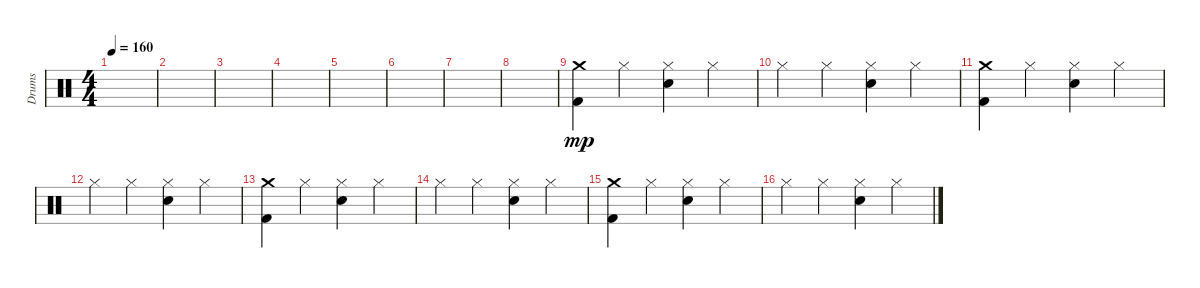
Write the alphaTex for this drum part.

\track ("Drums" "Drums") {instrument percussion}
\staff {score}
\articulation defaults
\ts (4 4)
\tempo 160
\clef neutral
\ks c
|
|
|
|
|
|
|
|
("Kick (hit) 2" "Crash medium (hit)").4{dy mp} "Hi-Hat (closed)".4 ("Snare (hit) 2" "Hi-Hat (closed)").4 "Hi-Hat (closed)".4 |
"Hi-Hat (closed)".4 "Hi-Hat (closed)".4 ("Snare (hit) 2" "Hi-Hat (closed)").4 "Hi-Hat (closed)".4 |
("Kick (hit) 2" "Crash medium (hit)").4 "Hi-Hat (closed)".4 ("Snare (hit) 2" "Hi-Hat (closed)").4 "Hi-Hat (closed)".4 |
"Hi-Hat (closed)".4 "Hi-Hat (closed)".4 ("Snare (hit) 2" "Hi-Hat (closed)").4 "Hi-Hat (closed)".4 |
("Kick (hit) 2" "Crash medium (hit)").4 "Hi-Hat (closed)".4 ("Snare (hit) 2" "Hi-Hat (closed)").4 "Hi-Hat (closed)".4 |
"Hi-Hat (closed)".4 "Hi-Hat (closed)".4 ("Snare (hit) 2" "Hi-Hat (closed)").4 "Hi-Hat (closed)".4 |
("Kick (hit) 2" "Crash medium (hit)").4 "Hi-Hat (closed)".4 ("Snare (hit) 2" "Hi-Hat (closed)").4 "Hi-Hat (closed)".4 |
"Hi-Hat (closed)".4 "Hi-Hat (closed)".4 ("Snare (hit) 2" "Hi-Hat (closed)").4 "Hi-Hat (closed)".4
